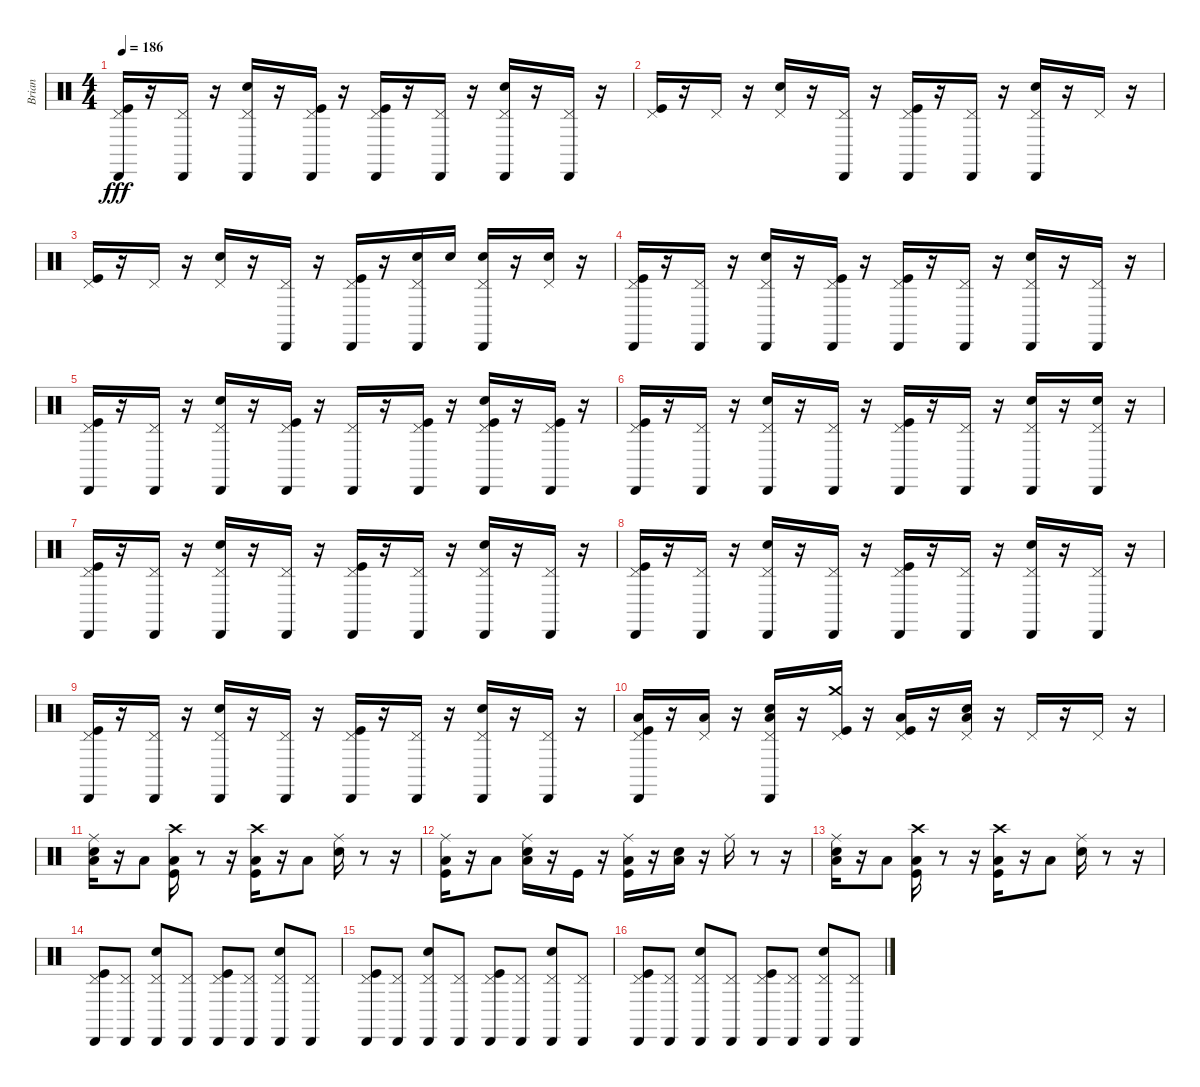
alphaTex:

\track ("Brian" "Brian") {instrument percussion}
\staff {score}
\articulation defaults
\ts (4 4)
\tempo 186
\clef neutral
\ks c
("Cabasa (hit)" "Pedal Hi-Hat (hit)" "Kick (hit)").16{dy fff} r.16 ("Cabasa (hit)" "Pedal Hi-Hat (hit)").16 r.16 ("Cabasa (hit)" "Pedal Hi-Hat (hit)" "Snare (hit) 2").16 r.16 ("Cabasa (hit)" "Pedal Hi-Hat (hit)" "Kick (hit)").16 r.16 ("Cabasa (hit)" "Pedal Hi-Hat (hit)" "Kick (hit)").16 r.16 ("Cabasa (hit)" "Pedal Hi-Hat (hit)").16 r.16 ("Cabasa (hit)" "Pedal Hi-Hat (hit)" "Snare (hit) 2").16 r.16 ("Cabasa (hit)" "Pedal Hi-Hat (hit)").16 r.16 |
("Pedal Hi-Hat (hit)" "Kick (hit)").16 r.16 "Pedal Hi-Hat (hit)".16 r.16 ("Pedal Hi-Hat (hit)" "Snare (hit) 2").16 r.16 ("Cabasa (hit)" "Pedal Hi-Hat (hit)").16 r.16 ("Cabasa (hit)" "Pedal Hi-Hat (hit)" "Kick (hit)").16 r.16 ("Cabasa (hit)" "Pedal Hi-Hat (hit)").16 r.16 ("Cabasa (hit)" "Pedal Hi-Hat (hit)" "Snare (hit) 2").16 r.16 "Pedal Hi-Hat (hit)".16 r.16 |
("Pedal Hi-Hat (hit)" "Kick (hit)").16 r.16 "Pedal Hi-Hat (hit)".16 r.16 ("Pedal Hi-Hat (hit)" "Snare (hit) 2").16 r.16 ("Cabasa (hit)" "Pedal Hi-Hat (hit)").16 r.16 ("Cabasa (hit)" "Pedal Hi-Hat (hit)" "Kick (hit)").16 r.16 ("Cabasa (hit)" "Pedal Hi-Hat (hit)" "Snare (hit) 2").16 "Snare (hit) 2".16 ("Cabasa (hit)" "Pedal Hi-Hat (hit)" "Snare (hit) 2").16 r.16 ("Pedal Hi-Hat (hit)" "Snare (hit) 2").16 r.16 |
("Cabasa (hit)" "Pedal Hi-Hat (hit)" "Kick (hit)").16 r.16 ("Cabasa (hit)" "Pedal Hi-Hat (hit)").16 r.16 ("Cabasa (hit)" "Pedal Hi-Hat (hit)" "Snare (hit) 2").16 r.16 ("Cabasa (hit)" "Pedal Hi-Hat (hit)" "Kick (hit)").16 r.16 ("Cabasa (hit)" "Pedal Hi-Hat (hit)" "Kick (hit)").16 r.16 ("Cabasa (hit)" "Pedal Hi-Hat (hit)").16 r.16 ("Cabasa (hit)" "Pedal Hi-Hat (hit)" "Snare (hit) 2").16 r.16 ("Cabasa (hit)" "Pedal Hi-Hat (hit)").16 r.16 |
("Cabasa (hit)" "Pedal Hi-Hat (hit)" "Kick (hit)").16 r.16 ("Cabasa (hit)" "Pedal Hi-Hat (hit)").16 r.16 ("Cabasa (hit)" "Pedal Hi-Hat (hit)" "Snare (hit) 2").16 r.16 ("Cabasa (hit)" "Pedal Hi-Hat (hit)" "Kick (hit)").16 r.16 ("Cabasa (hit)" "Pedal Hi-Hat (hit)").16 r.16 ("Cabasa (hit)" "Pedal Hi-Hat (hit)" "Kick (hit)").16 r.16 ("Cabasa (hit)" "Pedal Hi-Hat (hit)" "Snare (hit) 2" "Kick (hit)").16 r.16 ("Cabasa (hit)" "Pedal Hi-Hat (hit)" "Kick (hit)").16 r.16 |
("Cabasa (hit)" "Pedal Hi-Hat (hit)" "Kick (hit)").16 r.16 ("Cabasa (hit)" "Pedal Hi-Hat (hit)").16 r.16 ("Cabasa (hit)" "Pedal Hi-Hat (hit)" "Snare (hit) 2").16 r.16 ("Cabasa (hit)" "Pedal Hi-Hat (hit)").16 r.16 ("Cabasa (hit)" "Pedal Hi-Hat (hit)" "Kick (hit)").16 r.16 ("Cabasa (hit)" "Pedal Hi-Hat (hit)").16 r.16 ("Cabasa (hit)" "Pedal Hi-Hat (hit)" "Snare (hit) 2").16 r.16 ("Cabasa (hit)" "Pedal Hi-Hat (hit)" "Snare (hit) 2").16 r.16 |
("Cabasa (hit)" "Pedal Hi-Hat (hit)" "Kick (hit)").16 r.16 ("Cabasa (hit)" "Pedal Hi-Hat (hit)").16 r.16 ("Cabasa (hit)" "Pedal Hi-Hat (hit)" "Snare (hit) 2").16 r.16 ("Cabasa (hit)" "Pedal Hi-Hat (hit)").16 r.16 ("Cabasa (hit)" "Pedal Hi-Hat (hit)" "Kick (hit)").16 r.16 ("Cabasa (hit)" "Pedal Hi-Hat (hit)").16 r.16 ("Cabasa (hit)" "Pedal Hi-Hat (hit)" "Snare (hit) 2").16 r.16 ("Cabasa (hit)" "Pedal Hi-Hat (hit)").16 r.16 |
("Cabasa (hit)" "Pedal Hi-Hat (hit)" "Kick (hit)").16 r.16 ("Cabasa (hit)" "Pedal Hi-Hat (hit)").16 r.16 ("Cabasa (hit)" "Pedal Hi-Hat (hit)" "Snare (hit) 2").16 r.16 ("Cabasa (hit)" "Pedal Hi-Hat (hit)").16 r.16 ("Cabasa (hit)" "Pedal Hi-Hat (hit)" "Kick (hit)").16 r.16 ("Cabasa (hit)" "Pedal Hi-Hat (hit)").16 r.16 ("Cabasa (hit)" "Pedal Hi-Hat (hit)" "Snare (hit) 2").16 r.16 ("Cabasa (hit)" "Pedal Hi-Hat (hit)").16 r.16 |
("Cabasa (hit)" "Pedal Hi-Hat (hit)" "Kick (hit)").16 r.16 ("Cabasa (hit)" "Pedal Hi-Hat (hit)").16 r.16 ("Cabasa (hit)" "Pedal Hi-Hat (hit)" "Snare (hit) 2").16 r.16 ("Cabasa (hit)" "Pedal Hi-Hat (hit)").16 r.16 ("Cabasa (hit)" "Pedal Hi-Hat (hit)" "Kick (hit)").16 r.16 ("Cabasa (hit)" "Pedal Hi-Hat (hit)").16 r.16 ("Cabasa (hit)" "Pedal Hi-Hat (hit)" "Snare (hit) 2").16 r.16 ("Cabasa (hit)" "Pedal Hi-Hat (hit)").16 r.16 |
("Cabasa (hit)" "Low Tom (hit)" "Pedal Hi-Hat (hit)" "Kick (hit)").16 r.16 ("Low Tom (hit)" "Pedal Hi-Hat (hit)").16 r.16 ("Cabasa (hit)" "Low Tom (hit)" "Pedal Hi-Hat (hit)" "Snare (hit) 2").16 r.16 ("Crash medium (hit)" "Pedal Hi-Hat (hit)" "Kick (hit)").16 r.16 ("Low Tom (hit)" "Pedal Hi-Hat (hit)" "Kick (hit)").16 r.16 ("Low Tom (hit)" "Pedal Hi-Hat (hit)" "Snare (hit) 2").16 r.16 "Pedal Hi-Hat (hit)".16 r.16 "Pedal Hi-Hat (hit)".16 r.16 |
("Ride (middle)" "Low Tom (hit)" "Snare (hit) 2").16 r.16 "Low Tom (hit)".8 ("Crash high (hit)" "Low Tom (hit)" "Kick (hit)").16 r.8 r.16 ("Crash high (hit)" "Low Tom (hit)" "Kick (hit)").16 r.16 "Low Tom (hit)".8 ("Ride (middle)" "Snare (hit) 2").16 r.8 r.16 |
("Ride (middle)" "Low Tom (hit)" "Kick (hit)").16 r.16 "Low Tom (hit)".8 ("Ride (middle)" "Low Tom (hit)" "Snare (hit) 2").16 r.16 "Kick (hit)".16 r.16 ("Ride (middle)" "Low Tom (hit)" "Kick (hit)").16 r.16 ("Low Tom (hit)" "Snare (hit) 2").16 r.16 "Ride (middle)".16 r.8 r.16 |
("Ride (middle)" "Low Tom (hit)" "Snare (hit) 2").16 r.16 "Low Tom (hit)".8 ("Crash high (hit)" "Low Tom (hit)" "Kick (hit)").16 r.8 r.16 ("Crash high (hit)" "Low Tom (hit)" "Kick (hit)").16 r.16 "Low Tom (hit)".8 ("Ride (middle)" "Snare (hit) 2").16 r.8 r.16 |
("Cabasa (hit)" "Pedal Hi-Hat (hit)" "Kick (hit)").8 ("Cabasa (hit)" "Pedal Hi-Hat (hit)").8 ("Cabasa (hit)" "Pedal Hi-Hat (hit)" "Snare (hit) 2").8 ("Cabasa (hit)" "Pedal Hi-Hat (hit)").8 ("Cabasa (hit)" "Pedal Hi-Hat (hit)" "Kick (hit)").8 ("Cabasa (hit)" "Pedal Hi-Hat (hit)").8 ("Cabasa (hit)" "Pedal Hi-Hat (hit)" "Snare (hit) 2").8 ("Cabasa (hit)" "Pedal Hi-Hat (hit)").8 |
("Cabasa (hit)" "Pedal Hi-Hat (hit)" "Kick (hit)").8 ("Cabasa (hit)" "Pedal Hi-Hat (hit)").8 ("Cabasa (hit)" "Pedal Hi-Hat (hit)" "Snare (hit) 2").8 ("Cabasa (hit)" "Pedal Hi-Hat (hit)").8 ("Cabasa (hit)" "Pedal Hi-Hat (hit)" "Kick (hit)").8 ("Cabasa (hit)" "Pedal Hi-Hat (hit)").8 ("Cabasa (hit)" "Pedal Hi-Hat (hit)" "Snare (hit) 2").8 ("Cabasa (hit)" "Pedal Hi-Hat (hit)").8 |
("Cabasa (hit)" "Pedal Hi-Hat (hit)" "Kick (hit)").8 ("Cabasa (hit)" "Pedal Hi-Hat (hit)").8 ("Cabasa (hit)" "Pedal Hi-Hat (hit)" "Snare (hit) 2").8 ("Cabasa (hit)" "Pedal Hi-Hat (hit)").8 ("Cabasa (hit)" "Pedal Hi-Hat (hit)" "Kick (hit)").8 ("Cabasa (hit)" "Pedal Hi-Hat (hit)").8 ("Cabasa (hit)" "Pedal Hi-Hat (hit)" "Snare (hit) 2").8 ("Cabasa (hit)" "Pedal Hi-Hat (hit)").8
